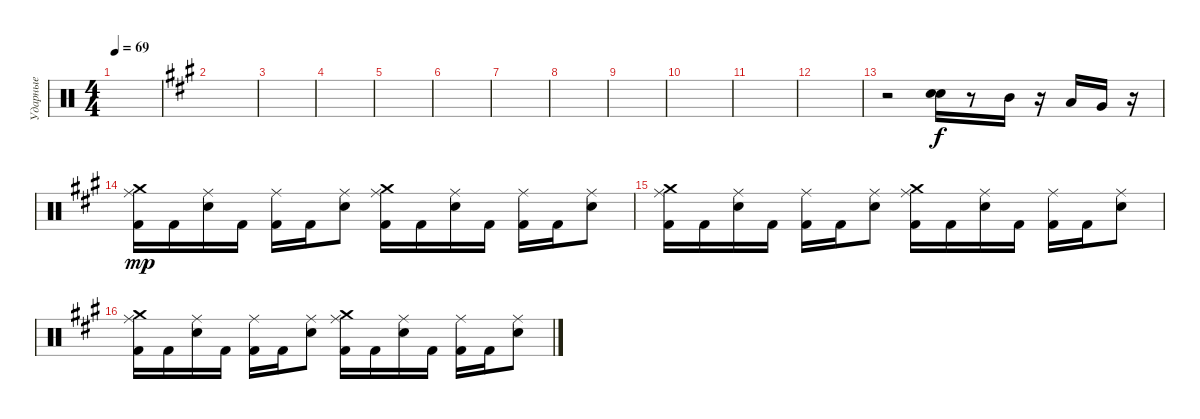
\track ("Ударные" "Ударные") {instrument percussion}
\staff {score}
\articulation defaults
\ts (4 4)
\tempo 69
\clef neutral
\ks c
|
\ks a
|
|
|
|
|
|
|
|
|
|
|
r.2 ("Electric Snare (hit)" "Electric Snare (hit)").16 r.8 "Mid Tom (hit)".16 r.16 "Low Tom (hit)".16 "Very Low Tom (hit)".16 r.16 |
("Kick (hit) 2" "Ride (middle)" "Crash medium (hit)").16{dy mp} "Kick (hit) 2".16 ("Electric Snare (hit)" "Ride (middle)").16 "Kick (hit) 2".16 ("Kick (hit) 2" "Ride (middle)").16 "Kick (hit) 2".16 ("Electric Snare (hit)" "Ride (middle)").8 ("Kick (hit) 2" "Ride (middle)" "Crash medium (hit)").16 "Kick (hit) 2".16 ("Electric Snare (hit)" "Ride (middle)").16 "Kick (hit) 2".16 ("Kick (hit) 2" "Ride (middle)").16 "Kick (hit) 2".16 ("Electric Snare (hit)" "Ride (middle)").8 |
("Kick (hit) 2" "Ride (middle)" "Crash medium (hit)").16 "Kick (hit) 2".16 ("Electric Snare (hit)" "Ride (middle)").16 "Kick (hit) 2".16 ("Kick (hit) 2" "Ride (middle)").16 "Kick (hit) 2".16 ("Electric Snare (hit)" "Ride (middle)").8 ("Kick (hit) 2" "Ride (middle)" "Crash medium (hit)").16 "Kick (hit) 2".16 ("Electric Snare (hit)" "Ride (middle)").16 "Kick (hit) 2".16 ("Kick (hit) 2" "Ride (middle)").16 "Kick (hit) 2".16 ("Electric Snare (hit)" "Ride (middle)").8 |
("Kick (hit) 2" "Ride (middle)" "Crash medium (hit)").16 "Kick (hit) 2".16 ("Electric Snare (hit)" "Ride (middle)").16 "Kick (hit) 2".16 ("Kick (hit) 2" "Ride (middle)").16 "Kick (hit) 2".16 ("Electric Snare (hit)" "Ride (middle)").8 ("Kick (hit) 2" "Ride (middle)" "Crash medium (hit)").16 "Kick (hit) 2".16 ("Electric Snare (hit)" "Ride (middle)").16 "Kick (hit) 2".16 ("Kick (hit) 2" "Ride (middle)").16 "Kick (hit) 2".16 ("Electric Snare (hit)" "Ride (middle)").8
